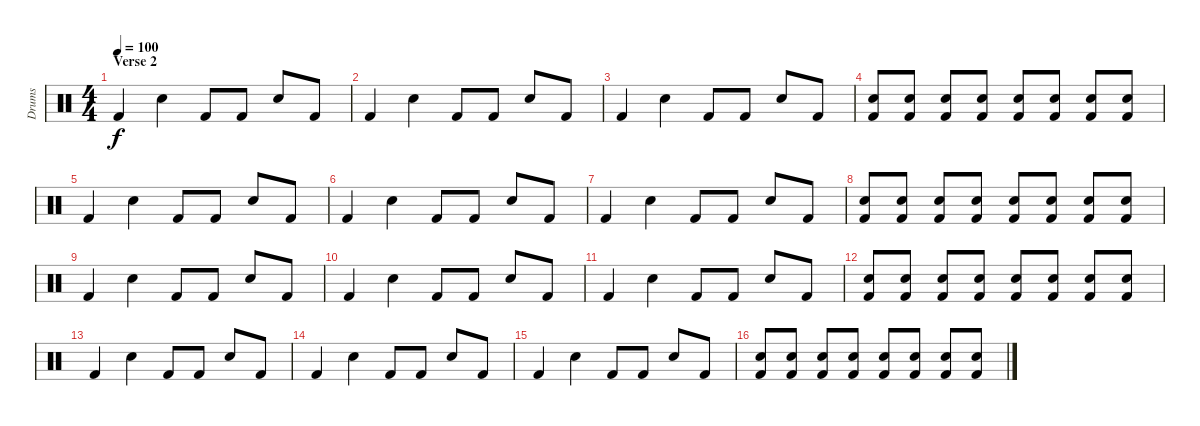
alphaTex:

\track ("Drums" "Drums") {instrument percussion}
\staff {score}
\articulation defaults
\ts (4 4)
\section ("" "Verse 2")
\tempo 100
\clef neutral
\ks c "Kick (hit) 2".4{dy f} "Electric Snare (hit)".4 "Kick (hit) 2".8 "Kick (hit) 2".8 "Electric Snare (hit)".8 "Kick (hit) 2".8
|
"Kick (hit) 2".4 "Electric Snare (hit)".4 "Kick (hit) 2".8 "Kick (hit) 2".8 "Electric Snare (hit)".8 "Kick (hit) 2".8 |
"Kick (hit) 2".4 "Electric Snare (hit)".4 "Kick (hit) 2".8 "Kick (hit) 2".8 "Electric Snare (hit)".8 "Kick (hit) 2".8 |
("Electric Snare (hit)" "Kick (hit) 2").8 ("Electric Snare (hit)" "Kick (hit) 2").8 ("Electric Snare (hit)" "Kick (hit) 2").8 ("Electric Snare (hit)" "Kick (hit) 2").8 ("Electric Snare (hit)" "Kick (hit) 2").8 ("Electric Snare (hit)" "Kick (hit) 2").8 ("Electric Snare (hit)" "Kick (hit) 2").8 ("Electric Snare (hit)" "Kick (hit) 2").8 |
"Kick (hit) 2".4 "Electric Snare (hit)".4 "Kick (hit) 2".8 "Kick (hit) 2".8 "Electric Snare (hit)".8 "Kick (hit) 2".8 |
"Kick (hit) 2".4 "Electric Snare (hit)".4 "Kick (hit) 2".8 "Kick (hit) 2".8 "Electric Snare (hit)".8 "Kick (hit) 2".8 |
"Kick (hit) 2".4 "Electric Snare (hit)".4 "Kick (hit) 2".8 "Kick (hit) 2".8 "Electric Snare (hit)".8 "Kick (hit) 2".8 |
("Electric Snare (hit)" "Kick (hit) 2").8 ("Electric Snare (hit)" "Kick (hit) 2").8 ("Electric Snare (hit)" "Kick (hit) 2").8 ("Electric Snare (hit)" "Kick (hit) 2").8 ("Electric Snare (hit)" "Kick (hit) 2").8 ("Electric Snare (hit)" "Kick (hit) 2").8 ("Electric Snare (hit)" "Kick (hit) 2").8 ("Electric Snare (hit)" "Kick (hit) 2").8 |
"Kick (hit) 2".4 "Electric Snare (hit)".4 "Kick (hit) 2".8 "Kick (hit) 2".8 "Electric Snare (hit)".8 "Kick (hit) 2".8 |
"Kick (hit) 2".4 "Electric Snare (hit)".4 "Kick (hit) 2".8 "Kick (hit) 2".8 "Electric Snare (hit)".8 "Kick (hit) 2".8 |
"Kick (hit) 2".4 "Electric Snare (hit)".4 "Kick (hit) 2".8 "Kick (hit) 2".8 "Electric Snare (hit)".8 "Kick (hit) 2".8 |
("Electric Snare (hit)" "Kick (hit) 2").8 ("Electric Snare (hit)" "Kick (hit) 2").8 ("Electric Snare (hit)" "Kick (hit) 2").8 ("Electric Snare (hit)" "Kick (hit) 2").8 ("Electric Snare (hit)" "Kick (hit) 2").8 ("Electric Snare (hit)" "Kick (hit) 2").8 ("Electric Snare (hit)" "Kick (hit) 2").8 ("Electric Snare (hit)" "Kick (hit) 2").8 |
"Kick (hit) 2".4 "Electric Snare (hit)".4 "Kick (hit) 2".8 "Kick (hit) 2".8 "Electric Snare (hit)".8 "Kick (hit) 2".8 |
"Kick (hit) 2".4 "Electric Snare (hit)".4 "Kick (hit) 2".8 "Kick (hit) 2".8 "Electric Snare (hit)".8 "Kick (hit) 2".8 |
"Kick (hit) 2".4 "Electric Snare (hit)".4 "Kick (hit) 2".8 "Kick (hit) 2".8 "Electric Snare (hit)".8 "Kick (hit) 2".8 |
("Electric Snare (hit)" "Kick (hit) 2").8 ("Electric Snare (hit)" "Kick (hit) 2").8 ("Electric Snare (hit)" "Kick (hit) 2").8 ("Electric Snare (hit)" "Kick (hit) 2").8 ("Electric Snare (hit)" "Kick (hit) 2").8 ("Electric Snare (hit)" "Kick (hit) 2").8 ("Electric Snare (hit)" "Kick (hit) 2").8 ("Electric Snare (hit)" "Kick (hit) 2").8
